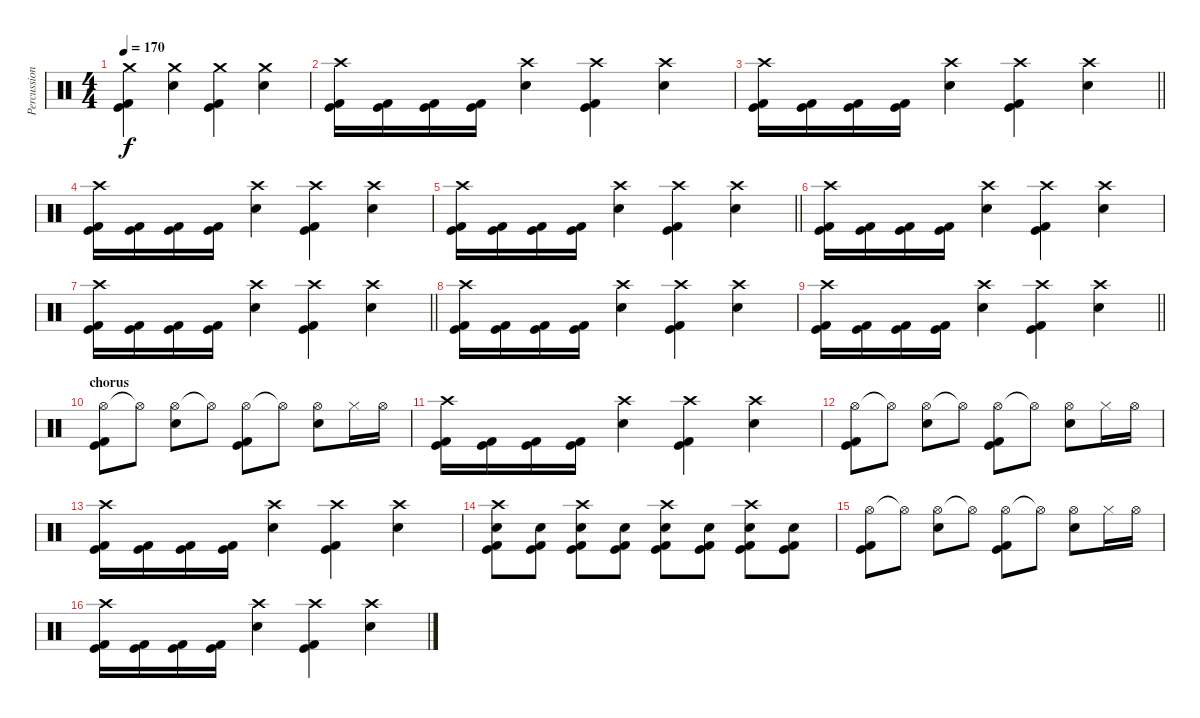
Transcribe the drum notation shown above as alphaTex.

\track ("Percussion" "Percussion") {instrument percussion}
\staff {score}
\articulation defaults
\ts (4 4)
\tempo 170
\clef neutral
\ks c
("Crash medium (hit)" "Kick (hit) 2" "Kick (hit)").4{dy f} ("Crash medium (hit)" "Electric Snare (hit)").4 ("Crash medium (hit)" "Kick (hit) 2" "Kick (hit)").4 ("Crash medium (hit)" "Electric Snare (hit)").4 |
("Crash high (hit)" "Kick (hit) 2" "Kick (hit)").16 ("Kick (hit) 2" "Kick (hit)").16 ("Kick (hit) 2" "Kick (hit)").16 ("Kick (hit) 2" "Kick (hit)").16 ("Crash high (hit)" "Electric Snare (hit)").4 ("Crash high (hit)" "Kick (hit) 2" "Kick (hit)").4 ("Crash high (hit)" "Electric Snare (hit)").4 |
\barLineRight lightlight
("Crash high (hit)" "Kick (hit) 2" "Kick (hit)").16 ("Kick (hit) 2" "Kick (hit)").16 ("Kick (hit) 2" "Kick (hit)").16 ("Kick (hit) 2" "Kick (hit)").16 ("Crash high (hit)" "Electric Snare (hit)").4 ("Crash high (hit)" "Kick (hit) 2" "Kick (hit)").4 ("Crash high (hit)" "Electric Snare (hit)").4 |
("Crash high (hit)" "Kick (hit) 2" "Kick (hit)").16 ("Kick (hit) 2" "Kick (hit)").16 ("Kick (hit) 2" "Kick (hit)").16 ("Kick (hit) 2" "Kick (hit)").16 ("Crash high (hit)" "Electric Snare (hit)").4 ("Crash high (hit)" "Kick (hit) 2" "Kick (hit)").4 ("Crash high (hit)" "Electric Snare (hit)").4 |
\barLineRight lightlight
("Crash high (hit)" "Kick (hit) 2" "Kick (hit)").16 ("Kick (hit) 2" "Kick (hit)").16 ("Kick (hit) 2" "Kick (hit)").16 ("Kick (hit) 2" "Kick (hit)").16 ("Crash high (hit)" "Electric Snare (hit)").4 ("Crash high (hit)" "Kick (hit) 2" "Kick (hit)").4 ("Crash high (hit)" "Electric Snare (hit)").4 |
("Crash high (hit)" "Kick (hit) 2" "Kick (hit)").16 ("Kick (hit) 2" "Kick (hit)").16 ("Kick (hit) 2" "Kick (hit)").16 ("Kick (hit) 2" "Kick (hit)").16 ("Crash high (hit)" "Electric Snare (hit)").4 ("Crash high (hit)" "Kick (hit) 2" "Kick (hit)").4 ("Crash high (hit)" "Electric Snare (hit)").4 |
\barLineRight lightlight
("Crash high (hit)" "Kick (hit) 2" "Kick (hit)").16 ("Kick (hit) 2" "Kick (hit)").16 ("Kick (hit) 2" "Kick (hit)").16 ("Kick (hit) 2" "Kick (hit)").16 ("Crash high (hit)" "Electric Snare (hit)").4 ("Crash high (hit)" "Kick (hit) 2" "Kick (hit)").4 ("Crash high (hit)" "Electric Snare (hit)").4 |
("Crash high (hit)" "Kick (hit) 2" "Kick (hit)").16 ("Kick (hit) 2" "Kick (hit)").16 ("Kick (hit) 2" "Kick (hit)").16 ("Kick (hit) 2" "Kick (hit)").16 ("Crash high (hit)" "Electric Snare (hit)").4 ("Crash high (hit)" "Kick (hit) 2" "Kick (hit)").4 ("Crash high (hit)" "Electric Snare (hit)").4 |
\barLineRight lightlight
("Crash high (hit)" "Kick (hit) 2" "Kick (hit)").16 ("Kick (hit) 2" "Kick (hit)").16 ("Kick (hit) 2" "Kick (hit)").16 ("Kick (hit) 2" "Kick (hit)").16 ("Crash high (hit)" "Electric Snare (hit)").4 ("Crash high (hit)" "Kick (hit) 2" "Kick (hit)").4 ("Crash high (hit)" "Electric Snare (hit)").4 |
\section ("" "chorus")
("Hi-Hat (open)" "Kick (hit) 2" "Kick (hit)").8 "Hi-Hat (open)"{t}.8 ("Hi-Hat (open)" "Electric Snare (hit)").8 "Hi-Hat (open)"{t}.8 ("Hi-Hat (open)" "Kick (hit) 2" "Kick (hit)").8 "Hi-Hat (open)"{t}.8 ("Hi-Hat (open)" "Electric Snare (hit)").8 "Hi-Hat (closed)".16 "Hi-Hat (open)".16 |
("Crash high (hit)" "Kick (hit) 2" "Kick (hit)").16 ("Kick (hit) 2" "Kick (hit)").16 ("Kick (hit) 2" "Kick (hit)").16 ("Kick (hit) 2" "Kick (hit)").16 ("Crash high (hit)" "Electric Snare (hit)").4 ("Crash high (hit)" "Kick (hit) 2" "Kick (hit)").4 ("Crash high (hit)" "Electric Snare (hit)").4 |
("Hi-Hat (open)" "Kick (hit) 2" "Kick (hit)").8 "Hi-Hat (open)"{t}.8 ("Hi-Hat (open)" "Electric Snare (hit)").8 "Hi-Hat (open)"{t}.8 ("Hi-Hat (open)" "Kick (hit) 2" "Kick (hit)").8 "Hi-Hat (open)"{t}.8 ("Hi-Hat (open)" "Electric Snare (hit)").8 "Hi-Hat (closed)".16 "Hi-Hat (open)".16 |
("Crash high (hit)" "Kick (hit) 2" "Kick (hit)").16 ("Kick (hit) 2" "Kick (hit)").16 ("Kick (hit) 2" "Kick (hit)").16 ("Kick (hit) 2" "Kick (hit)").16 ("Crash high (hit)" "Electric Snare (hit)").4 ("Crash high (hit)" "Kick (hit) 2" "Kick (hit)").4 ("Crash high (hit)" "Electric Snare (hit)").4 |
("Crash high (hit)" "Electric Snare (hit)" "Kick (hit) 2" "Kick (hit)").8 ("Electric Snare (hit)" "Kick (hit) 2" "Kick (hit)").8 ("Crash high (hit)" "Electric Snare (hit)" "Kick (hit) 2" "Kick (hit)").8 ("Electric Snare (hit)" "Kick (hit) 2" "Kick (hit)").8 ("Crash high (hit)" "Electric Snare (hit)" "Kick (hit) 2" "Kick (hit)").8 ("Electric Snare (hit)" "Kick (hit) 2" "Kick (hit)").8 ("Crash high (hit)" "Electric Snare (hit)" "Kick (hit) 2" "Kick (hit)").8 ("Electric Snare (hit)" "Kick (hit) 2" "Kick (hit)").8 |
("Hi-Hat (open)" "Kick (hit) 2" "Kick (hit)").8 "Hi-Hat (open)"{t}.8 ("Hi-Hat (open)" "Electric Snare (hit)").8 "Hi-Hat (open)"{t}.8 ("Hi-Hat (open)" "Kick (hit) 2" "Kick (hit)").8 "Hi-Hat (open)"{t}.8 ("Hi-Hat (open)" "Electric Snare (hit)").8 "Hi-Hat (closed)".16 "Hi-Hat (open)".16 |
("Crash high (hit)" "Kick (hit) 2" "Kick (hit)").16 ("Kick (hit) 2" "Kick (hit)").16 ("Kick (hit) 2" "Kick (hit)").16 ("Kick (hit) 2" "Kick (hit)").16 ("Crash high (hit)" "Electric Snare (hit)").4 ("Crash high (hit)" "Kick (hit) 2" "Kick (hit)").4 ("Crash high (hit)" "Electric Snare (hit)").4
